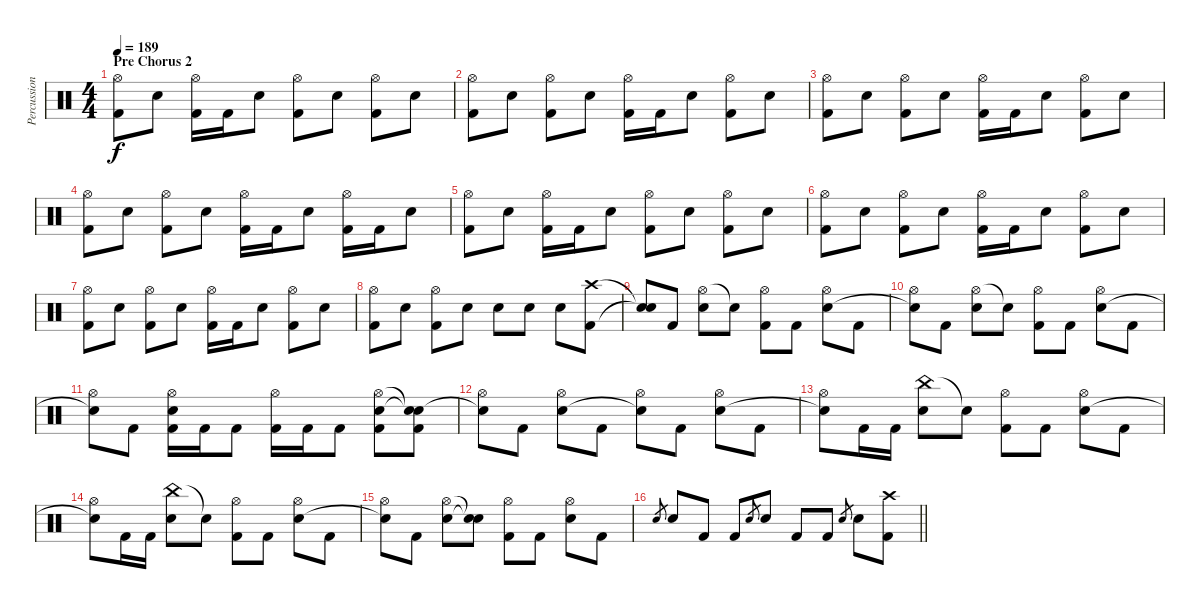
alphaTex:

\track ("Percussion" "Percussion") {instrument percussion}
\staff {score}
\articulation defaults
\ts (4 4)
\section ("" "Pre Chorus 2")
\tempo 189
\clef neutral
\ks c
("Hi-Hat (open)" "Kick (hit) 2").8{dy f} "Electric Snare (hit)".8 ("Hi-Hat (open)" "Kick (hit) 2").16 "Kick (hit) 2".16 "Electric Snare (hit)".8 ("Hi-Hat (open)" "Kick (hit) 2").8 "Electric Snare (hit)".8 ("Hi-Hat (open)" "Kick (hit) 2").8 "Electric Snare (hit)".8 |
("Hi-Hat (open)" "Kick (hit) 2").8 "Electric Snare (hit)".8 ("Hi-Hat (open)" "Kick (hit) 2").8 "Electric Snare (hit)".8 ("Hi-Hat (open)" "Kick (hit) 2").16 "Kick (hit) 2".16 "Electric Snare (hit)".8 ("Hi-Hat (open)" "Kick (hit) 2").8 "Electric Snare (hit)".8 |
("Hi-Hat (open)" "Kick (hit) 2").8 "Electric Snare (hit)".8 ("Hi-Hat (open)" "Kick (hit) 2").8 "Electric Snare (hit)".8 ("Hi-Hat (open)" "Kick (hit) 2").16 "Kick (hit) 2".16 "Electric Snare (hit)".8 ("Hi-Hat (open)" "Kick (hit) 2").8 "Electric Snare (hit)".8 |
("Hi-Hat (open)" "Kick (hit) 2").8 "Electric Snare (hit)".8 ("Hi-Hat (open)" "Kick (hit) 2").8 "Electric Snare (hit)".8 ("Hi-Hat (open)" "Kick (hit) 2").16 "Kick (hit) 2".16 "Electric Snare (hit)".8 ("Hi-Hat (open)" "Kick (hit) 2").16 "Kick (hit) 2".16 "Electric Snare (hit)".8 |
("Hi-Hat (open)" "Kick (hit) 2").8 "Electric Snare (hit)".8 ("Hi-Hat (open)" "Kick (hit) 2").16 "Kick (hit) 2".16 "Electric Snare (hit)".8 ("Hi-Hat (open)" "Kick (hit) 2").8 "Electric Snare (hit)".8 ("Hi-Hat (open)" "Kick (hit) 2").8 "Electric Snare (hit)".8 |
("Hi-Hat (open)" "Kick (hit) 2").8 "Electric Snare (hit)".8 ("Hi-Hat (open)" "Kick (hit) 2").8 "Electric Snare (hit)".8 ("Hi-Hat (open)" "Kick (hit) 2").16 "Kick (hit) 2".16 "Electric Snare (hit)".8 ("Hi-Hat (open)" "Kick (hit) 2").8 "Electric Snare (hit)".8 |
("Hi-Hat (open)" "Kick (hit) 2").8 "Electric Snare (hit)".8 ("Hi-Hat (open)" "Kick (hit) 2").8 "Electric Snare (hit)".8 ("Hi-Hat (open)" "Kick (hit) 2").16 "Kick (hit) 2".16 "Electric Snare (hit)".8 ("Hi-Hat (open)" "Kick (hit) 2").8 "Electric Snare (hit)".8 |
("Hi-Hat (open)" "Kick (hit) 2").8 "Electric Snare (hit)".8 ("Hi-Hat (open)" "Kick (hit) 2").8 "Electric Snare (hit)".8 "Electric Snare (hit)".8 "Electric Snare (hit)".8 "Electric Snare (hit)".8 ("Crash high (hit)" "Kick (hit) 2").8 |
("Snare (hit)"{t} "Snare (hit)"{t}).8 "Kick (hit) 2".8 ("Hi-Hat (open)" "Electric Snare (hit)").8 "Snare (hit)"{t}.8 ("Hi-Hat (open)" "Kick (hit) 2").8 "Kick (hit) 2".8 ("Hi-Hat (open)" "Electric Snare (hit)").8 "Kick (hit) 2".8 |
("Hi-Hat (open)" "Snare (hit)"{t}).8 "Kick (hit) 2".8 ("Hi-Hat (open)" "Electric Snare (hit)").8 "Snare (hit)"{t}.8 ("Hi-Hat (open)" "Kick (hit) 2").8 "Kick (hit) 2".8 ("Hi-Hat (open)" "Electric Snare (hit)").8 "Kick (hit) 2".8 |
("Hi-Hat (open)" "Snare (hit)"{t}).8 "Kick (hit) 2".8 ("Hi-Hat (open)" "Electric Snare (hit)" "Kick (hit) 2").16 "Kick (hit) 2".16 "Kick (hit) 2".8 ("Hi-Hat (open)" "Kick (hit) 2").16 "Kick (hit) 2".16 "Kick (hit) 2".8 ("Hi-Hat (open)" "Electric Snare (hit)" "Kick (hit) 2").8 ("Snare (hit)"{t} "Snare (hit)"{t} "Kick (hit) 2").8 |
("Hi-Hat (open)" "Snare (hit)"{t}).8 "Kick (hit) 2".8 ("Hi-Hat (open)" "Electric Snare (hit)").8 "Kick (hit) 2".8 ("Hi-Hat (open)" "Snare (hit)"{t}).8 "Kick (hit) 2".8 ("Hi-Hat (open)" "Electric Snare (hit)").8 "Kick (hit) 2".8 |
("Hi-Hat (open)" "Snare (hit)"{t}).8 "Kick (hit) 2".16 "Kick (hit) 2".16 ("China (hit)" "Electric Snare (hit)").8 "Snare (hit)"{t}.8 ("Hi-Hat (open)" "Kick (hit) 2").8 "Kick (hit) 2".8 ("Hi-Hat (open)" "Electric Snare (hit)").8 "Kick (hit) 2".8 |
("Hi-Hat (open)" "Snare (hit)"{t}).8 "Kick (hit) 2".16 "Kick (hit) 2".16 ("China (hit)" "Electric Snare (hit)").8 "Snare (hit)"{t}.8 ("Hi-Hat (open)" "Kick (hit) 2").8 "Kick (hit) 2".8 ("Hi-Hat (open)" "Electric Snare (hit)").8 "Kick (hit) 2".8 |
("Hi-Hat (open)" "Snare (hit)"{t}).8 "Kick (hit) 2".8 ("Hi-Hat (open)" "Electric Snare (hit)").8 ("Snare (hit)"{t} "Snare (hit)"{t}).8 ("Hi-Hat (open)" "Kick (hit) 2").8 "Kick (hit) 2".8 ("Hi-Hat (open)" "Electric Snare (hit)").8 "Kick (hit) 2".8 |
\barLineRight lightlight "Electric Snare (hit)".8{gr} "Electric Snare (hit)".8 "Kick (hit) 2".8 "Kick (hit) 2".8 "Electric Snare (hit)".8{gr} "Electric Snare (hit)".8 "Kick (hit) 2".8 "Kick (hit) 2".8 "Electric Snare (hit)".8{gr} "Electric Snare (hit)".8
("Crash high (hit)" "Kick (hit) 2").8
